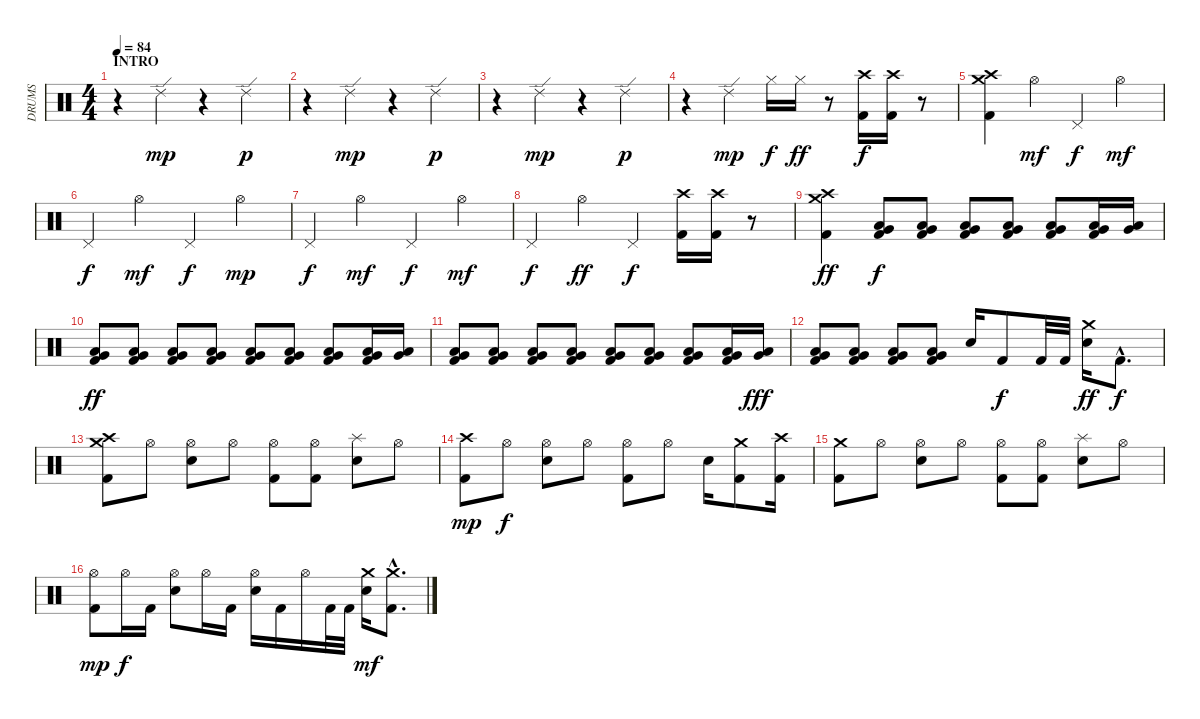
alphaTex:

\track ("DRUMS" "DRUMS") {instrument percussion}
\staff {score}
\articulation defaults
\ts (4 4)
\section ("" "INTRO")
\tempo 84
\clef neutral
\ks c
r.4{dy mp} "Ride (edge) 2".4 r.4 "Ride (edge) 2".4{dy p} |
r.4 "Ride (edge) 2".4{dy mp} r.4 "Ride (edge) 2".4{dy p} |
r.4 "Ride (edge) 2".4{dy mp} r.4 "Ride (edge) 2".4{dy p} |
r.4 "Ride (edge) 2".4{dy mp} "Hi-Hat (closed)".16{dy f} "Hi-Hat (closed)".16{dy ff} r.8 ("Crash high (hit)" "Kick (hit) 2").16{dy f} ("Crash high (hit)" "Kick (hit) 2").16{volume 13} r.8{volume 0} |
("Crash medium (hit)" "Crash high (hit)" "Kick (hit) 2").4{volume 13} "Hi-Hat (open)".4{dy mf} "Pedal Hi-Hat (hit)".4{dy f} "Hi-Hat (open)".4{dy mf} |
"Pedal Hi-Hat (hit)".4{dy f} "Hi-Hat (open)".4{dy mf} "Pedal Hi-Hat (hit)".4{dy f} "Hi-Hat (open)".4{dy mp} |
"Pedal Hi-Hat (hit)".4{dy f} "Hi-Hat (open)".4{dy mf} "Pedal Hi-Hat (hit)".4{dy f} "Hi-Hat (open)".4{dy mf} |
"Pedal Hi-Hat (hit)".4{dy f} "Hi-Hat (open)".4{dy ff} "Pedal Hi-Hat (hit)".4{dy f} ("Crash high (hit)" "Kick (hit) 2").16 ("Crash high (hit)" "Kick (hit) 2").16{volume 13} r.8{volume 0} |
("Crash medium (hit)" "Crash high (hit)" "Kick (hit) 2").4{dy ff volume 13} ("Very Low Tom (hit)" "Low Floor Tom (hit)" "Kick (hit) 2").8{dy f} ("Very Low Tom (hit)" "Low Floor Tom (hit)" "Kick (hit) 2").8 ("Very Low Tom (hit)" "Low Floor Tom (hit)" "Kick (hit) 2").8 ("Very Low Tom (hit)" "Low Floor Tom (hit)" "Kick (hit) 2").8 ("Very Low Tom (hit)" "Low Floor Tom (hit)" "Kick (hit) 2").8 ("Very Low Tom (hit)" "Low Floor Tom (hit)" "Kick (hit) 2").16 ("Very Low Tom (hit)" "Low Floor Tom (hit)").16 |
("Very Low Tom (hit)" "Low Floor Tom (hit)" "Kick (hit) 2").8{dy ff} ("Very Low Tom (hit)" "Low Floor Tom (hit)" "Kick (hit) 2").8 ("Very Low Tom (hit)" "Low Floor Tom (hit)" "Kick (hit) 2").8 ("Very Low Tom (hit)" "Low Floor Tom (hit)" "Kick (hit) 2").8 ("Very Low Tom (hit)" "Low Floor Tom (hit)" "Kick (hit) 2").8 ("Very Low Tom (hit)" "Low Floor Tom (hit)" "Kick (hit) 2").8 ("Very Low Tom (hit)" "Low Floor Tom (hit)" "Kick (hit) 2").8 ("Very Low Tom (hit)" "Low Floor Tom (hit)" "Kick (hit) 2").16 ("Very Low Tom (hit)" "Low Floor Tom (hit)").16 |
("Very Low Tom (hit)" "Low Floor Tom (hit)" "Kick (hit) 2").8 ("Very Low Tom (hit)" "Low Floor Tom (hit)" "Kick (hit) 2").8 ("Very Low Tom (hit)" "Low Floor Tom (hit)" "Kick (hit) 2").8 ("Very Low Tom (hit)" "Low Floor Tom (hit)" "Kick (hit) 2").8 ("Very Low Tom (hit)" "Low Floor Tom (hit)" "Kick (hit) 2").8 ("Very Low Tom (hit)" "Low Floor Tom (hit)" "Kick (hit) 2").8 ("Very Low Tom (hit)" "Low Floor Tom (hit)" "Kick (hit) 2").8 ("Very Low Tom (hit)" "Low Floor Tom (hit)" "Kick (hit) 2").16 ("Very Low Tom (hit)" "Low Floor Tom (hit)").16{dy fff} |
("Very Low Tom (hit)" "Low Floor Tom (hit)" "Kick (hit) 2").8 ("Very Low Tom (hit)" "Low Floor Tom (hit)" "Kick (hit) 2").8 ("Very Low Tom (hit)" "Low Floor Tom (hit)" "Kick (hit) 2").8 ("Very Low Tom (hit)" "Low Floor Tom (hit)" "Kick (hit) 2").8 "Electric Snare (hit)".16 "Kick (hit) 2".8{dy f} "Kick (hit) 2".32 "Kick (hit) 2".32 ("Crash medium (hit)" "Electric Snare (hit)").16{dy ff} "Kick (hit) 2"{hac}.8{d dy f} |
("Crash medium (hit)" "Crash high (hit)" "Kick (hit) 2").8 "Hi-Hat (open)".8 ("Hi-Hat (open)" "Electric Snare (hit)").8 "Hi-Hat (open)".8 ("Hi-Hat (open)" "Kick (hit) 2").8 ("Hi-Hat (open)" "Kick (hit) 2").8 ("Splash (hit)" "Electric Snare (hit)").8 "Hi-Hat (open)".8 |
("Crash high (hit)" "Kick (hit) 2").8{dy mp} "Hi-Hat (open)".8{dy f} ("Hi-Hat (open)" "Electric Snare (hit)").8 "Hi-Hat (open)".8 ("Hi-Hat (open)" "Kick (hit) 2").8 "Hi-Hat (open)".8 "Electric Snare (hit)".16 ("Crash medium (hit)" "Kick (hit) 2").8 ("Crash high (hit)" "Kick (hit) 2").16 |
("Crash medium (hit)" "Kick (hit) 2").8 "Hi-Hat (open)".8 ("Hi-Hat (open)" "Electric Snare (hit)").8 "Hi-Hat (open)".8 ("Hi-Hat (open)" "Kick (hit) 2").8 ("Hi-Hat (open)" "Kick (hit) 2").8 ("Splash (hit)" "Electric Snare (hit)").8 "Hi-Hat (open)".8 |
("Hi-Hat (open)" "Kick (hit) 2").8{dy mp} "Hi-Hat (open)".16{dy f} "Kick (hit) 2".16 ("Hi-Hat (open)" "Electric Snare (hit)").8 "Hi-Hat (open)".16 "Kick (hit) 2".16 ("Hi-Hat (open)" "Electric Snare (hit)").16 "Kick (hit) 2".16 "Hi-Hat (open)".16 "Kick (hit) 2".32 "Kick (hit) 2".32 ("Crash medium (hit)" "Electric Snare (hit)").16{dy mf} ("Crash medium (hit)"{hac} "Kick (hit) 2"{hac}).8{d}
